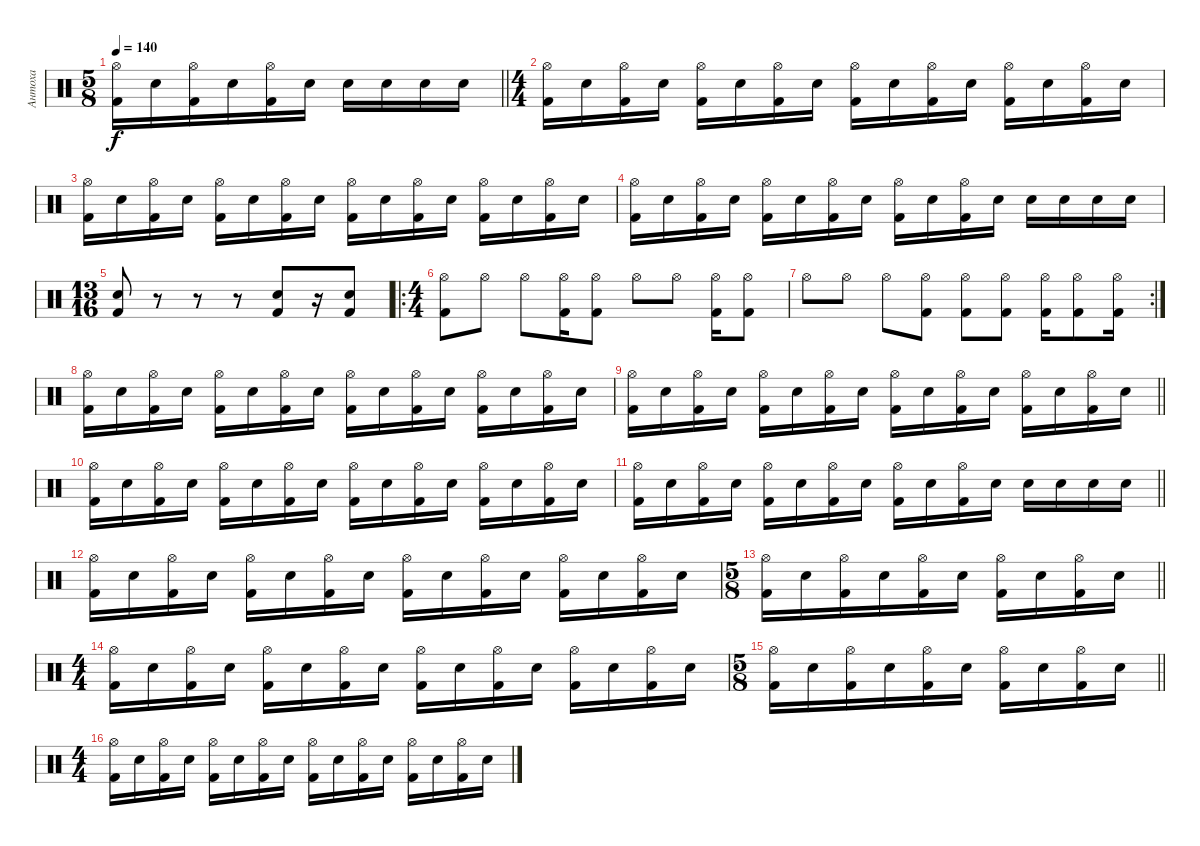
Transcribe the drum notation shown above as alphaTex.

\track ("Антоха" "Антоха") {instrument percussion}
\staff {score}
\articulation defaults
\ts (5 8)
\tempo 140
\clef neutral
\barLineRight lightlight
\ks c
("Hi-Hat (open)" "Kick (hit) 2").16{dy f} "Electric Snare (hit)".16 ("Hi-Hat (open)" "Kick (hit) 2").16 "Electric Snare (hit)".16 ("Hi-Hat (open)" "Kick (hit) 2").16 "Electric Snare (hit)".16 "Electric Snare (hit)".16 "Electric Snare (hit)".16 "Electric Snare (hit)".16 "Electric Snare (hit)".16 |
\ts (4 4)
("Hi-Hat (open)" "Kick (hit) 2").16 "Electric Snare (hit)".16 ("Hi-Hat (open)" "Kick (hit) 2").16 "Electric Snare (hit)".16 ("Hi-Hat (open)" "Kick (hit) 2").16 "Electric Snare (hit)".16 ("Hi-Hat (open)" "Kick (hit) 2").16 "Electric Snare (hit)".16 ("Hi-Hat (open)" "Kick (hit) 2").16 "Electric Snare (hit)".16 ("Hi-Hat (open)" "Kick (hit) 2").16 "Electric Snare (hit)".16 ("Hi-Hat (open)" "Kick (hit) 2").16 "Electric Snare (hit)".16 ("Hi-Hat (open)" "Kick (hit) 2").16 "Electric Snare (hit)".16 |
("Hi-Hat (open)" "Kick (hit) 2").16 "Electric Snare (hit)".16 ("Hi-Hat (open)" "Kick (hit) 2").16 "Electric Snare (hit)".16 ("Hi-Hat (open)" "Kick (hit) 2").16 "Electric Snare (hit)".16 ("Hi-Hat (open)" "Kick (hit) 2").16 "Electric Snare (hit)".16 ("Hi-Hat (open)" "Kick (hit) 2").16 "Electric Snare (hit)".16 ("Hi-Hat (open)" "Kick (hit) 2").16 "Electric Snare (hit)".16 ("Hi-Hat (open)" "Kick (hit) 2").16 "Electric Snare (hit)".16 ("Hi-Hat (open)" "Kick (hit) 2").16 "Electric Snare (hit)".16 |
("Hi-Hat (open)" "Kick (hit) 2").16 "Electric Snare (hit)".16 ("Hi-Hat (open)" "Kick (hit) 2").16 "Electric Snare (hit)".16 ("Hi-Hat (open)" "Kick (hit) 2").16 "Electric Snare (hit)".16 ("Hi-Hat (open)" "Kick (hit) 2").16 "Electric Snare (hit)".16 ("Hi-Hat (open)" "Kick (hit) 2").16 "Electric Snare (hit)".16 ("Hi-Hat (open)" "Kick (hit) 2").16 "Electric Snare (hit)".16 "Electric Snare (hit)".16 "Electric Snare (hit)".16 "Electric Snare (hit)".16 "Electric Snare (hit)".16 |
\ts (13 16)
("Kick (hit) 2" "Electric Snare (hit)").8 r.8 r.8 r.8 ("Kick (hit) 2" "Electric Snare (hit)").8 r.16 ("Kick (hit) 2" "Electric Snare (hit)").8 |
\ro
\ts (4 4)
("Hi-Hat (open)" "Kick (hit) 2").8 "Hi-Hat (open)".8 "Hi-Hat (open)".8 ("Hi-Hat (open)" "Kick (hit) 2").16 ("Hi-Hat (open)" "Kick (hit) 2").8 "Hi-Hat (open)".8 "Hi-Hat (open)".8 ("Hi-Hat (open)" "Kick (hit) 2").16 ("Hi-Hat (open)" "Kick (hit) 2").8 |
\rc 2 "Hi-Hat (open)".8 "Hi-Hat (open)".8 "Hi-Hat (open)".8
("Hi-Hat (open)" "Kick (hit) 2").8 ("Hi-Hat (open)" "Kick (hit) 2").8 ("Hi-Hat (open)" "Kick (hit) 2").8 ("Hi-Hat (open)" "Kick (hit) 2").16 ("Hi-Hat (open)" "Kick (hit) 2").8 ("Hi-Hat (open)" "Kick (hit) 2").16 |
("Hi-Hat (open)" "Kick (hit) 2").16 "Electric Snare (hit)".16 ("Hi-Hat (open)" "Kick (hit) 2").16 "Electric Snare (hit)".16 ("Hi-Hat (open)" "Kick (hit) 2").16 "Electric Snare (hit)".16 ("Hi-Hat (open)" "Kick (hit) 2").16 "Electric Snare (hit)".16 ("Hi-Hat (open)" "Kick (hit) 2").16 "Electric Snare (hit)".16 ("Hi-Hat (open)" "Kick (hit) 2").16 "Electric Snare (hit)".16 ("Hi-Hat (open)" "Kick (hit) 2").16 "Electric Snare (hit)".16 ("Hi-Hat (open)" "Kick (hit) 2").16 "Electric Snare (hit)".16 |
\barLineRight lightlight
("Hi-Hat (open)" "Kick (hit) 2").16 "Electric Snare (hit)".16 ("Hi-Hat (open)" "Kick (hit) 2").16 "Electric Snare (hit)".16 ("Hi-Hat (open)" "Kick (hit) 2").16 "Electric Snare (hit)".16 ("Hi-Hat (open)" "Kick (hit) 2").16 "Electric Snare (hit)".16 ("Hi-Hat (open)" "Kick (hit) 2").16 "Electric Snare (hit)".16 ("Hi-Hat (open)" "Kick (hit) 2").16 "Electric Snare (hit)".16 ("Hi-Hat (open)" "Kick (hit) 2").16 "Electric Snare (hit)".16 ("Hi-Hat (open)" "Kick (hit) 2").16 "Electric Snare (hit)".16 |
("Hi-Hat (open)" "Kick (hit) 2").16 "Electric Snare (hit)".16 ("Hi-Hat (open)" "Kick (hit) 2").16 "Electric Snare (hit)".16 ("Hi-Hat (open)" "Kick (hit) 2").16 "Electric Snare (hit)".16 ("Hi-Hat (open)" "Kick (hit) 2").16 "Electric Snare (hit)".16 ("Hi-Hat (open)" "Kick (hit) 2").16 "Electric Snare (hit)".16 ("Hi-Hat (open)" "Kick (hit) 2").16 "Electric Snare (hit)".16 ("Hi-Hat (open)" "Kick (hit) 2").16 "Electric Snare (hit)".16 ("Hi-Hat (open)" "Kick (hit) 2").16 "Electric Snare (hit)".16 |
\barLineRight lightlight
("Hi-Hat (open)" "Kick (hit) 2").16 "Electric Snare (hit)".16 ("Hi-Hat (open)" "Kick (hit) 2").16 "Electric Snare (hit)".16 ("Hi-Hat (open)" "Kick (hit) 2").16 "Electric Snare (hit)".16 ("Hi-Hat (open)" "Kick (hit) 2").16 "Electric Snare (hit)".16 ("Hi-Hat (open)" "Kick (hit) 2").16 "Electric Snare (hit)".16 ("Hi-Hat (open)" "Kick (hit) 2").16 "Electric Snare (hit)".16 "Electric Snare (hit)".16 "Electric Snare (hit)".16 "Electric Snare (hit)".16 "Electric Snare (hit)".16 |
("Hi-Hat (open)" "Kick (hit) 2").16 "Electric Snare (hit)".16 ("Hi-Hat (open)" "Kick (hit) 2").16 "Electric Snare (hit)".16 ("Hi-Hat (open)" "Kick (hit) 2").16 "Electric Snare (hit)".16 ("Hi-Hat (open)" "Kick (hit) 2").16 "Electric Snare (hit)".16 ("Hi-Hat (open)" "Kick (hit) 2").16 "Electric Snare (hit)".16 ("Hi-Hat (open)" "Kick (hit) 2").16 "Electric Snare (hit)".16 ("Hi-Hat (open)" "Kick (hit) 2").16 "Electric Snare (hit)".16 ("Hi-Hat (open)" "Kick (hit) 2").16 "Electric Snare (hit)".16 |
\ts (5 8)
\barLineRight lightlight
("Hi-Hat (open)" "Kick (hit) 2").16 "Electric Snare (hit)".16 ("Hi-Hat (open)" "Kick (hit) 2").16 "Electric Snare (hit)".16 ("Hi-Hat (open)" "Kick (hit) 2").16 "Electric Snare (hit)".16 ("Hi-Hat (open)" "Kick (hit) 2").16 "Electric Snare (hit)".16 ("Hi-Hat (open)" "Kick (hit) 2").16 "Electric Snare (hit)".16 |
\ts (4 4)
("Hi-Hat (open)" "Kick (hit) 2").16 "Electric Snare (hit)".16 ("Hi-Hat (open)" "Kick (hit) 2").16 "Electric Snare (hit)".16 ("Hi-Hat (open)" "Kick (hit) 2").16 "Electric Snare (hit)".16 ("Hi-Hat (open)" "Kick (hit) 2").16 "Electric Snare (hit)".16 ("Hi-Hat (open)" "Kick (hit) 2").16 "Electric Snare (hit)".16 ("Hi-Hat (open)" "Kick (hit) 2").16 "Electric Snare (hit)".16 ("Hi-Hat (open)" "Kick (hit) 2").16 "Electric Snare (hit)".16 ("Hi-Hat (open)" "Kick (hit) 2").16 "Electric Snare (hit)".16 |
\ts (5 8)
\barLineRight lightlight
("Hi-Hat (open)" "Kick (hit) 2").16 "Electric Snare (hit)".16 ("Hi-Hat (open)" "Kick (hit) 2").16 "Electric Snare (hit)".16 ("Hi-Hat (open)" "Kick (hit) 2").16 "Electric Snare (hit)".16 ("Hi-Hat (open)" "Kick (hit) 2").16 "Electric Snare (hit)".16 ("Hi-Hat (open)" "Kick (hit) 2").16 "Electric Snare (hit)".16 |
\ts (4 4)
("Hi-Hat (open)" "Kick (hit) 2").16 "Electric Snare (hit)".16 ("Hi-Hat (open)" "Kick (hit) 2").16 "Electric Snare (hit)".16 ("Hi-Hat (open)" "Kick (hit) 2").16 "Electric Snare (hit)".16 ("Hi-Hat (open)" "Kick (hit) 2").16 "Electric Snare (hit)".16 ("Hi-Hat (open)" "Kick (hit) 2").16 "Electric Snare (hit)".16 ("Hi-Hat (open)" "Kick (hit) 2").16 "Electric Snare (hit)".16 ("Hi-Hat (open)" "Kick (hit) 2").16 "Electric Snare (hit)".16 ("Hi-Hat (open)" "Kick (hit) 2").16 "Electric Snare (hit)".16
